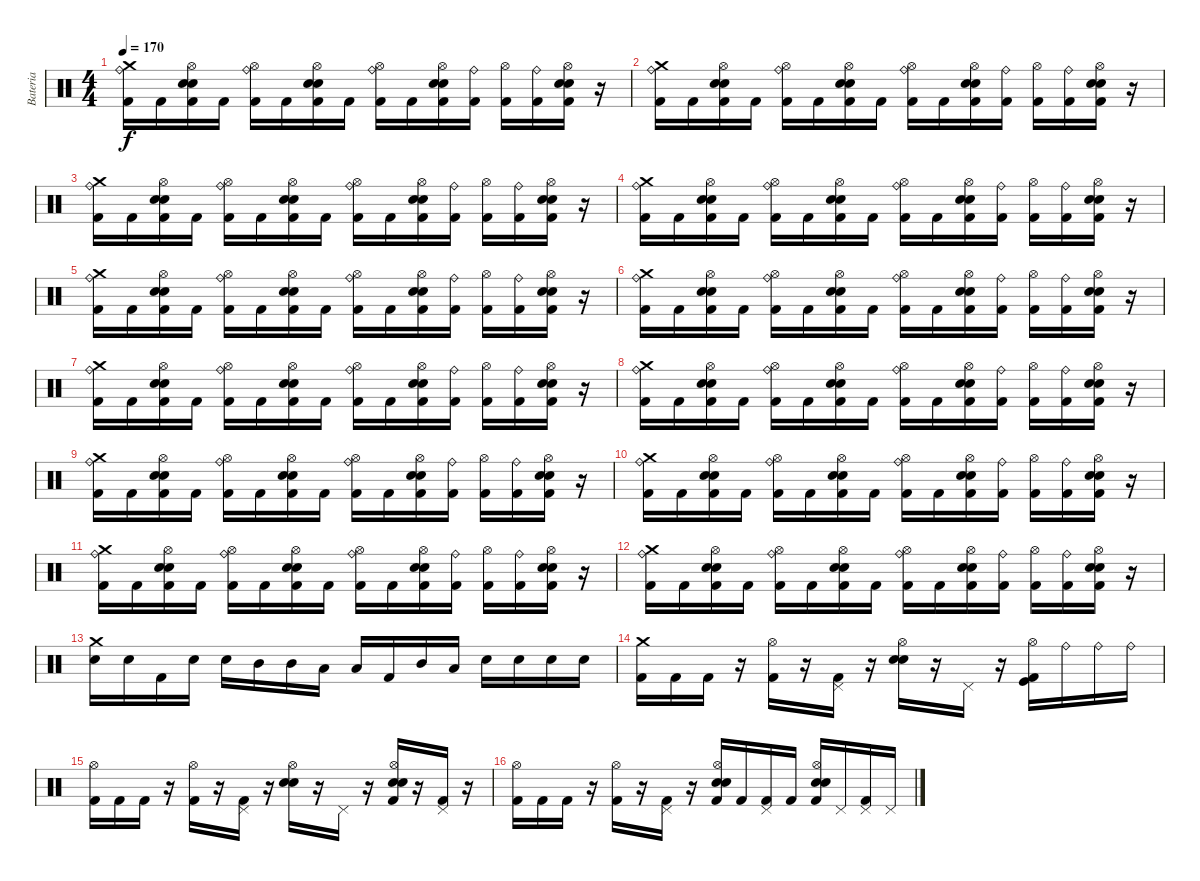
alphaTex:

\track ("Bateria" "Bateria") {instrument percussion}
\staff {score}
\articulation defaults
\ts (4 4)
\tempo 170
\clef neutral
\ks c
("Ride (bell)" "Crash medium (hit)" "Kick (hit) 2").16{dy f} "Kick (hit) 2".16 ("Hi-Hat (open)" "Electric Snare (hit)" "Snare (hit) 2" "Kick (hit) 2").16 "Kick (hit) 2".16 ("Ride (bell)" "Hi-Hat (open)" "Kick (hit) 2").16 "Kick (hit) 2".16 ("Hi-Hat (open)" "Electric Snare (hit)" "Snare (hit) 2" "Kick (hit) 2").16 "Kick (hit) 2".16 ("Ride (bell)" "Hi-Hat (open)" "Kick (hit) 2").16 "Kick (hit) 2".16 ("Hi-Hat (open)" "Electric Snare (hit)" "Snare (hit) 2" "Kick (hit) 2").16 ("Ride (bell)" "Kick (hit) 2").16 ("Hi-Hat (open)" "Kick (hit) 2").16 ("Ride (bell)" "Kick (hit) 2").16 ("Hi-Hat (open)" "Electric Snare (hit)" "Snare (hit) 2" "Kick (hit) 2").16 r.16 |
("Ride (bell)" "Crash medium (hit)" "Kick (hit) 2").16 "Kick (hit) 2".16 ("Hi-Hat (open)" "Electric Snare (hit)" "Snare (hit) 2" "Kick (hit) 2").16 "Kick (hit) 2".16 ("Ride (bell)" "Hi-Hat (open)" "Kick (hit) 2").16 "Kick (hit) 2".16 ("Hi-Hat (open)" "Electric Snare (hit)" "Snare (hit) 2" "Kick (hit) 2").16 "Kick (hit) 2".16 ("Ride (bell)" "Hi-Hat (open)" "Kick (hit) 2").16 "Kick (hit) 2".16 ("Hi-Hat (open)" "Electric Snare (hit)" "Snare (hit) 2" "Kick (hit) 2").16 ("Ride (bell)" "Kick (hit) 2").16 ("Hi-Hat (open)" "Kick (hit) 2").16 ("Ride (bell)" "Kick (hit) 2").16 ("Hi-Hat (open)" "Electric Snare (hit)" "Snare (hit) 2" "Kick (hit) 2").16 r.16 |
("Ride (bell)" "Crash medium (hit)" "Kick (hit) 2").16 "Kick (hit) 2".16 ("Hi-Hat (open)" "Electric Snare (hit)" "Snare (hit) 2" "Kick (hit) 2").16 "Kick (hit) 2".16 ("Ride (bell)" "Hi-Hat (open)" "Kick (hit) 2").16 "Kick (hit) 2".16 ("Hi-Hat (open)" "Electric Snare (hit)" "Snare (hit) 2" "Kick (hit) 2").16 "Kick (hit) 2".16 ("Ride (bell)" "Hi-Hat (open)" "Kick (hit) 2").16 "Kick (hit) 2".16 ("Hi-Hat (open)" "Electric Snare (hit)" "Snare (hit) 2" "Kick (hit) 2").16 ("Ride (bell)" "Kick (hit) 2").16 ("Hi-Hat (open)" "Kick (hit) 2").16 ("Ride (bell)" "Kick (hit) 2").16 ("Hi-Hat (open)" "Electric Snare (hit)" "Snare (hit) 2" "Kick (hit) 2").16 r.16 |
("Ride (bell)" "Crash medium (hit)" "Kick (hit) 2").16 "Kick (hit) 2".16 ("Hi-Hat (open)" "Electric Snare (hit)" "Snare (hit) 2" "Kick (hit) 2").16 "Kick (hit) 2".16 ("Ride (bell)" "Hi-Hat (open)" "Kick (hit) 2").16 "Kick (hit) 2".16 ("Hi-Hat (open)" "Electric Snare (hit)" "Snare (hit) 2" "Kick (hit) 2").16 "Kick (hit) 2".16 ("Ride (bell)" "Hi-Hat (open)" "Kick (hit) 2").16 "Kick (hit) 2".16 ("Hi-Hat (open)" "Electric Snare (hit)" "Snare (hit) 2" "Kick (hit) 2").16 ("Ride (bell)" "Kick (hit) 2").16 ("Hi-Hat (open)" "Kick (hit) 2").16 ("Ride (bell)" "Kick (hit) 2").16 ("Hi-Hat (open)" "Electric Snare (hit)" "Snare (hit) 2" "Kick (hit) 2").16 r.16 |
("Ride (bell)" "Crash medium (hit)" "Kick (hit) 2").16 "Kick (hit) 2".16 ("Hi-Hat (open)" "Electric Snare (hit)" "Snare (hit) 2" "Kick (hit) 2").16 "Kick (hit) 2".16 ("Ride (bell)" "Hi-Hat (open)" "Kick (hit) 2").16 "Kick (hit) 2".16 ("Hi-Hat (open)" "Electric Snare (hit)" "Snare (hit) 2" "Kick (hit) 2").16 "Kick (hit) 2".16 ("Ride (bell)" "Hi-Hat (open)" "Kick (hit) 2").16 "Kick (hit) 2".16 ("Hi-Hat (open)" "Electric Snare (hit)" "Snare (hit) 2" "Kick (hit) 2").16 ("Ride (bell)" "Kick (hit) 2").16 ("Hi-Hat (open)" "Kick (hit) 2").16 ("Ride (bell)" "Kick (hit) 2").16 ("Hi-Hat (open)" "Electric Snare (hit)" "Snare (hit) 2" "Kick (hit) 2").16 r.16 |
("Ride (bell)" "Crash medium (hit)" "Kick (hit) 2").16 "Kick (hit) 2".16 ("Hi-Hat (open)" "Electric Snare (hit)" "Snare (hit) 2" "Kick (hit) 2").16 "Kick (hit) 2".16 ("Ride (bell)" "Hi-Hat (open)" "Kick (hit) 2").16 "Kick (hit) 2".16 ("Hi-Hat (open)" "Electric Snare (hit)" "Snare (hit) 2" "Kick (hit) 2").16 "Kick (hit) 2".16 ("Ride (bell)" "Hi-Hat (open)" "Kick (hit) 2").16 "Kick (hit) 2".16 ("Hi-Hat (open)" "Electric Snare (hit)" "Snare (hit) 2" "Kick (hit) 2").16 ("Ride (bell)" "Kick (hit) 2").16 ("Hi-Hat (open)" "Kick (hit) 2").16 ("Ride (bell)" "Kick (hit) 2").16 ("Hi-Hat (open)" "Electric Snare (hit)" "Snare (hit) 2" "Kick (hit) 2").16 r.16 |
("Ride (bell)" "Crash medium (hit)" "Kick (hit) 2").16 "Kick (hit) 2".16 ("Hi-Hat (open)" "Electric Snare (hit)" "Snare (hit) 2" "Kick (hit) 2").16 "Kick (hit) 2".16 ("Ride (bell)" "Hi-Hat (open)" "Kick (hit) 2").16 "Kick (hit) 2".16 ("Hi-Hat (open)" "Electric Snare (hit)" "Snare (hit) 2" "Kick (hit) 2").16 "Kick (hit) 2".16 ("Ride (bell)" "Hi-Hat (open)" "Kick (hit) 2").16 "Kick (hit) 2".16 ("Hi-Hat (open)" "Electric Snare (hit)" "Snare (hit) 2" "Kick (hit) 2").16 ("Ride (bell)" "Kick (hit) 2").16 ("Hi-Hat (open)" "Kick (hit) 2").16 ("Ride (bell)" "Kick (hit) 2").16 ("Hi-Hat (open)" "Electric Snare (hit)" "Snare (hit) 2" "Kick (hit) 2").16 r.16 |
("Ride (bell)" "Crash medium (hit)" "Kick (hit) 2").16 "Kick (hit) 2".16 ("Hi-Hat (open)" "Electric Snare (hit)" "Snare (hit) 2" "Kick (hit) 2").16 "Kick (hit) 2".16 ("Ride (bell)" "Hi-Hat (open)" "Kick (hit) 2").16 "Kick (hit) 2".16 ("Hi-Hat (open)" "Electric Snare (hit)" "Snare (hit) 2" "Kick (hit) 2").16 "Kick (hit) 2".16 ("Ride (bell)" "Hi-Hat (open)" "Kick (hit) 2").16 "Kick (hit) 2".16 ("Hi-Hat (open)" "Electric Snare (hit)" "Snare (hit) 2" "Kick (hit) 2").16 ("Ride (bell)" "Kick (hit) 2").16 ("Hi-Hat (open)" "Kick (hit) 2").16 ("Ride (bell)" "Kick (hit) 2").16 ("Hi-Hat (open)" "Electric Snare (hit)" "Snare (hit) 2" "Kick (hit) 2").16 r.16 |
("Ride (bell)" "Crash medium (hit)" "Kick (hit) 2").16 "Kick (hit) 2".16 ("Hi-Hat (open)" "Electric Snare (hit)" "Snare (hit) 2" "Kick (hit) 2").16 "Kick (hit) 2".16 ("Ride (bell)" "Hi-Hat (open)" "Kick (hit) 2").16 "Kick (hit) 2".16 ("Hi-Hat (open)" "Electric Snare (hit)" "Snare (hit) 2" "Kick (hit) 2").16 "Kick (hit) 2".16 ("Ride (bell)" "Hi-Hat (open)" "Kick (hit) 2").16 "Kick (hit) 2".16 ("Hi-Hat (open)" "Electric Snare (hit)" "Snare (hit) 2" "Kick (hit) 2").16 ("Ride (bell)" "Kick (hit) 2").16 ("Hi-Hat (open)" "Kick (hit) 2").16 ("Ride (bell)" "Kick (hit) 2").16 ("Hi-Hat (open)" "Electric Snare (hit)" "Snare (hit) 2" "Kick (hit) 2").16 r.16 |
("Ride (bell)" "Crash medium (hit)" "Kick (hit) 2").16 "Kick (hit) 2".16 ("Hi-Hat (open)" "Electric Snare (hit)" "Snare (hit) 2" "Kick (hit) 2").16 "Kick (hit) 2".16 ("Ride (bell)" "Hi-Hat (open)" "Kick (hit) 2").16 "Kick (hit) 2".16 ("Hi-Hat (open)" "Electric Snare (hit)" "Snare (hit) 2" "Kick (hit) 2").16 "Kick (hit) 2".16 ("Ride (bell)" "Hi-Hat (open)" "Kick (hit) 2").16 "Kick (hit) 2".16 ("Hi-Hat (open)" "Electric Snare (hit)" "Snare (hit) 2" "Kick (hit) 2").16 ("Ride (bell)" "Kick (hit) 2").16 ("Hi-Hat (open)" "Kick (hit) 2").16 ("Ride (bell)" "Kick (hit) 2").16 ("Hi-Hat (open)" "Electric Snare (hit)" "Snare (hit) 2" "Kick (hit) 2").16 r.16 |
("Ride (bell)" "Crash medium (hit)" "Kick (hit) 2").16 "Kick (hit) 2".16 ("Hi-Hat (open)" "Electric Snare (hit)" "Snare (hit) 2" "Kick (hit) 2").16 "Kick (hit) 2".16 ("Ride (bell)" "Hi-Hat (open)" "Kick (hit) 2").16 "Kick (hit) 2".16 ("Hi-Hat (open)" "Electric Snare (hit)" "Snare (hit) 2" "Kick (hit) 2").16 "Kick (hit) 2".16 ("Ride (bell)" "Hi-Hat (open)" "Kick (hit) 2").16 "Kick (hit) 2".16 ("Hi-Hat (open)" "Electric Snare (hit)" "Snare (hit) 2" "Kick (hit) 2").16 ("Ride (bell)" "Kick (hit) 2").16 ("Hi-Hat (open)" "Kick (hit) 2").16 ("Ride (bell)" "Kick (hit) 2").16 ("Hi-Hat (open)" "Electric Snare (hit)" "Snare (hit) 2" "Kick (hit) 2").16 r.16 |
("Ride (bell)" "Crash medium (hit)" "Kick (hit) 2").16 "Kick (hit) 2".16 ("Hi-Hat (open)" "Electric Snare (hit)" "Snare (hit) 2" "Kick (hit) 2").16 "Kick (hit) 2".16 ("Ride (bell)" "Hi-Hat (open)" "Kick (hit) 2").16 "Kick (hit) 2".16 ("Hi-Hat (open)" "Electric Snare (hit)" "Snare (hit) 2" "Kick (hit) 2").16 "Kick (hit) 2".16 ("Ride (bell)" "Hi-Hat (open)" "Kick (hit) 2").16 "Kick (hit) 2".16 ("Hi-Hat (open)" "Electric Snare (hit)" "Snare (hit) 2" "Kick (hit) 2").16 ("Ride (bell)" "Kick (hit) 2").16 ("Hi-Hat (open)" "Kick (hit) 2").16 ("Ride (bell)" "Kick (hit) 2").16 ("Hi-Hat (open)" "Electric Snare (hit)" "Snare (hit) 2" "Kick (hit) 2").16 r.16 |
("Crash medium (hit)" "Snare (hit) 2").16 "Snare (hit) 2".16 "Kick (hit) 2".16 "Snare (hit) 2".16 "Snare (hit) 2".16 "Mid Tom (hit)".16 "Mid Tom (hit)".16 "Low Tom (hit)".16 "Low Tom (hit)".16 "Kick (hit) 2".16 "Mid Tom (hit)".16 "Low Tom (hit)".16 "Snare (hit) 2".16 "Snare (hit) 2".16 "Snare (hit) 2".16 "Snare (hit) 2".16 |
("Crash medium (hit)" "Kick (hit) 2").16 "Kick (hit) 2".16 "Kick (hit) 2".16 r.16 ("Hi-Hat (open)" "Kick (hit) 2").16 r.16 ("Pedal Hi-Hat (hit)" "Kick (hit) 2").16 r.16 ("Hi-Hat (open)" "Electric Snare (hit)" "Snare (hit) 2").16 r.16 "Pedal Hi-Hat (hit)".16 r.16 ("Hi-Hat (open)" "Kick (hit)" "Kick (hit) 2").16 "Ride (bell)".16 "Ride (bell)".16 "Ride (bell)".16 |
("Hi-Hat (open)" "Kick (hit) 2").16 "Kick (hit) 2".16 "Kick (hit) 2".16 r.16 ("Hi-Hat (open)" "Kick (hit) 2").16 r.16 ("Pedal Hi-Hat (hit)" "Kick (hit) 2").16 r.16 ("Hi-Hat (open)" "Electric Snare (hit)" "Snare (hit) 2").16 r.16 "Pedal Hi-Hat (hit)".16 r.16 ("Hi-Hat (open)" "Electric Snare (hit)" "Snare (hit) 2" "Kick (hit) 2").16 r.16 ("Pedal Hi-Hat (hit)" "Kick (hit) 2").16 r.16 |
("Hi-Hat (open)" "Kick (hit) 2").16 "Kick (hit) 2".16 "Kick (hit) 2".16 r.16 ("Hi-Hat (open)" "Kick (hit) 2").16 r.16 ("Pedal Hi-Hat (hit)" "Kick (hit) 2").16 r.16 ("Hi-Hat (open)" "Electric Snare (hit)" "Snare (hit) 2" "Kick (hit) 2").16 "Kick (hit) 2".16 ("Pedal Hi-Hat (hit)" "Kick (hit) 2").16 "Kick (hit) 2".16 ("Hi-Hat (open)" "Electric Snare (hit)" "Snare (hit) 2" "Kick (hit) 2").16 "Pedal Hi-Hat (hit)".16 ("Pedal Hi-Hat (hit)" "Kick (hit) 2").16 "Pedal Hi-Hat (hit)".16
